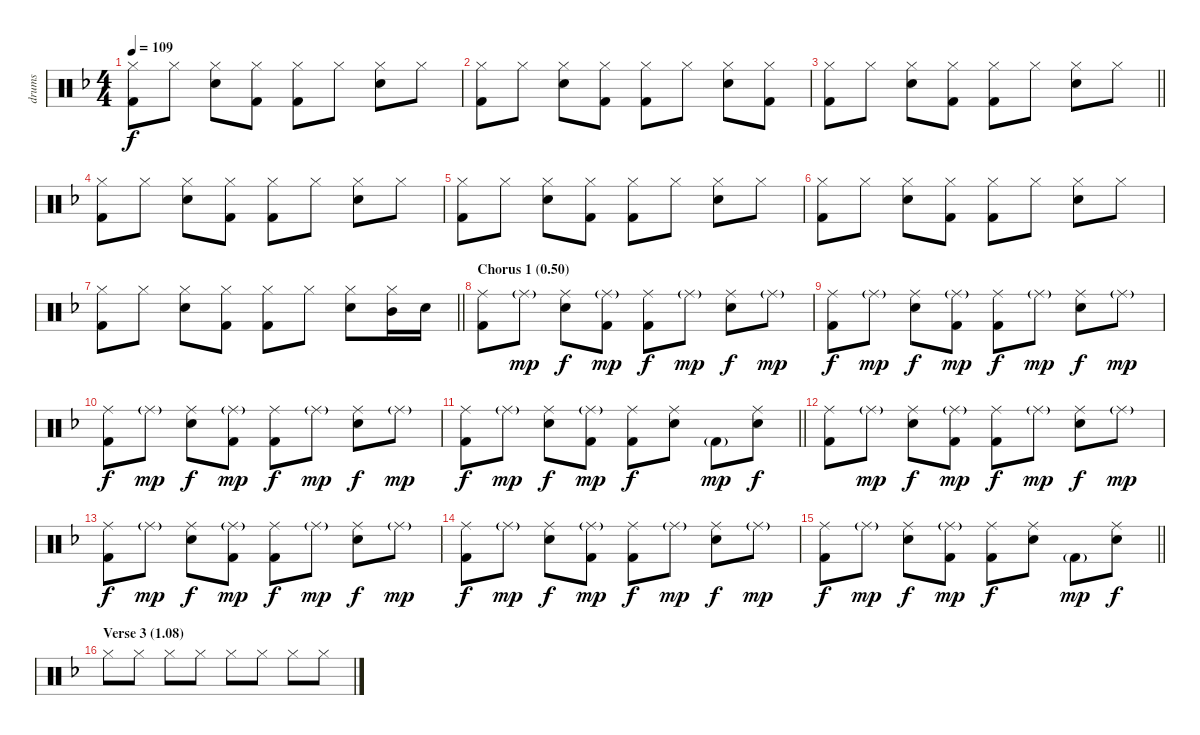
\track ("drums" "drums") {instrument percussion}
\staff {score}
\articulation defaults
\ts (4 4)
\tempo 109
\clef neutral
\ks f
("Hi-Hat (closed)" "Kick (hit) 2").8{dy f} "Hi-Hat (closed)".8 ("Hi-Hat (closed)" "Electric Snare (hit)").8 ("Hi-Hat (closed)" "Kick (hit) 2").8 ("Hi-Hat (closed)" "Kick (hit) 2").8 "Hi-Hat (closed)".8 ("Hi-Hat (closed)" "Electric Snare (hit)").8 "Hi-Hat (closed)".8 |
("Hi-Hat (closed)" "Kick (hit) 2").8 "Hi-Hat (closed)".8 ("Hi-Hat (closed)" "Electric Snare (hit)").8 ("Hi-Hat (closed)" "Kick (hit) 2").8 ("Hi-Hat (closed)" "Kick (hit) 2").8 "Hi-Hat (closed)".8 ("Hi-Hat (closed)" "Electric Snare (hit)").8 ("Hi-Hat (closed)" "Kick (hit) 2").8 |
\barLineRight lightlight
("Hi-Hat (closed)" "Kick (hit) 2").8 "Hi-Hat (closed)".8 ("Hi-Hat (closed)" "Electric Snare (hit)").8 ("Hi-Hat (closed)" "Kick (hit) 2").8 ("Hi-Hat (closed)" "Kick (hit) 2").8 "Hi-Hat (closed)".8 ("Hi-Hat (closed)" "Electric Snare (hit)").8 "Hi-Hat (closed)".8 |
("Hi-Hat (closed)" "Kick (hit) 2").8 "Hi-Hat (closed)".8 ("Hi-Hat (closed)" "Electric Snare (hit)").8 ("Hi-Hat (closed)" "Kick (hit) 2").8 ("Hi-Hat (closed)" "Kick (hit) 2").8 "Hi-Hat (closed)".8 ("Hi-Hat (closed)" "Electric Snare (hit)").8 "Hi-Hat (closed)".8 |
("Hi-Hat (closed)" "Kick (hit) 2").8 "Hi-Hat (closed)".8 ("Hi-Hat (closed)" "Electric Snare (hit)").8 ("Hi-Hat (closed)" "Kick (hit) 2").8 ("Hi-Hat (closed)" "Kick (hit) 2").8 "Hi-Hat (closed)".8 ("Hi-Hat (closed)" "Electric Snare (hit)").8 "Hi-Hat (closed)".8 |
("Hi-Hat (closed)" "Kick (hit) 2").8 "Hi-Hat (closed)".8 ("Hi-Hat (closed)" "Electric Snare (hit)").8 ("Hi-Hat (closed)" "Kick (hit) 2").8 ("Hi-Hat (closed)" "Kick (hit) 2").8 "Hi-Hat (closed)".8 ("Hi-Hat (closed)" "Electric Snare (hit)").8 "Hi-Hat (closed)".8 |
\barLineRight lightlight
("Hi-Hat (closed)" "Kick (hit) 2").8 "Hi-Hat (closed)".8 ("Hi-Hat (closed)" "Electric Snare (hit)").8 ("Hi-Hat (closed)" "Kick (hit) 2").8 ("Hi-Hat (closed)" "Kick (hit) 2").8 "Hi-Hat (closed)".8 ("Hi-Hat (closed)" "Electric Snare (hit)").8 ("Hi-Hat (closed)" "Mid Tom (hit)").16 "Electric Snare (hit)".16 |
\section ("" "Chorus 1 (0.50)")
("Ride (middle)" "Kick (hit) 2").8 "Ride (middle)"{g}.8{dy mp} ("Ride (middle)" "Electric Snare (hit)").8{dy f} ("Ride (middle)"{g} "Kick (hit) 2").8{dy mp} ("Ride (middle)" "Kick (hit) 2").8{dy f} "Ride (middle)"{g}.8{dy mp} ("Ride (middle)" "Electric Snare (hit)").8{dy f} "Ride (middle)"{g}.8{dy mp} |
("Ride (middle)" "Kick (hit) 2").8{dy f} "Ride (middle)"{g}.8{dy mp} ("Ride (middle)" "Electric Snare (hit)").8{dy f} ("Ride (middle)"{g} "Kick (hit) 2").8{dy mp} ("Ride (middle)" "Kick (hit) 2").8{dy f} "Ride (middle)"{g}.8{dy mp} ("Ride (middle)" "Electric Snare (hit)").8{dy f} "Ride (middle)"{g}.8{dy mp} |
("Ride (middle)" "Kick (hit) 2").8{dy f} "Ride (middle)"{g}.8{dy mp} ("Ride (middle)" "Electric Snare (hit)").8{dy f} ("Ride (middle)"{g} "Kick (hit) 2").8{dy mp} ("Ride (middle)" "Kick (hit) 2").8{dy f} "Ride (middle)"{g}.8{dy mp} ("Ride (middle)" "Electric Snare (hit)").8{dy f} "Ride (middle)"{g}.8{dy mp} |
\barLineRight lightlight
("Ride (middle)" "Kick (hit) 2").8{dy f} "Ride (middle)"{g}.8{dy mp} ("Ride (middle)" "Electric Snare (hit)").8{dy f} ("Ride (middle)"{g} "Kick (hit) 2").8{dy mp} ("Ride (middle)" "Kick (hit) 2").8{dy f} ("Ride (middle)" "Electric Snare (hit)").8 "Kick (hit) 2"{g}.8{dy mp} ("Ride (middle)" "Electric Snare (hit)").8{dy f} |
("Ride (middle)" "Kick (hit) 2").8 "Ride (middle)"{g}.8{dy mp} ("Ride (middle)" "Electric Snare (hit)").8{dy f} ("Ride (middle)"{g} "Kick (hit) 2").8{dy mp} ("Ride (middle)" "Kick (hit) 2").8{dy f} "Ride (middle)"{g}.8{dy mp} ("Ride (middle)" "Electric Snare (hit)").8{dy f} "Ride (middle)"{g}.8{dy mp} |
("Ride (middle)" "Kick (hit) 2").8{dy f} "Ride (middle)"{g}.8{dy mp} ("Ride (middle)" "Electric Snare (hit)").8{dy f} ("Ride (middle)"{g} "Kick (hit) 2").8{dy mp} ("Ride (middle)" "Kick (hit) 2").8{dy f} "Ride (middle)"{g}.8{dy mp} ("Ride (middle)" "Electric Snare (hit)").8{dy f} "Ride (middle)"{g}.8{dy mp} |
("Ride (middle)" "Kick (hit) 2").8{dy f} "Ride (middle)"{g}.8{dy mp} ("Ride (middle)" "Electric Snare (hit)").8{dy f} ("Ride (middle)"{g} "Kick (hit) 2").8{dy mp} ("Ride (middle)" "Kick (hit) 2").8{dy f} "Ride (middle)"{g}.8{dy mp} ("Ride (middle)" "Electric Snare (hit)").8{dy f} "Ride (middle)"{g}.8{dy mp} |
\barLineRight lightlight
("Ride (middle)" "Kick (hit) 2").8{dy f} "Ride (middle)"{g}.8{dy mp} ("Ride (middle)" "Electric Snare (hit)").8{dy f} ("Ride (middle)"{g} "Kick (hit) 2").8{dy mp} ("Ride (middle)" "Kick (hit) 2").8{dy f} ("Ride (middle)" "Electric Snare (hit)").8 "Kick (hit) 2"{g}.8{dy mp} ("Ride (middle)" "Electric Snare (hit)").8{dy f} |
\section ("" "Verse 3 (1.08)")
"Hi-Hat (closed)".8 "Hi-Hat (closed)".8 "Hi-Hat (closed)".8 "Hi-Hat (closed)".8 "Hi-Hat (closed)".8 "Hi-Hat (closed)".8 "Hi-Hat (closed)".8 "Hi-Hat (closed)".8
